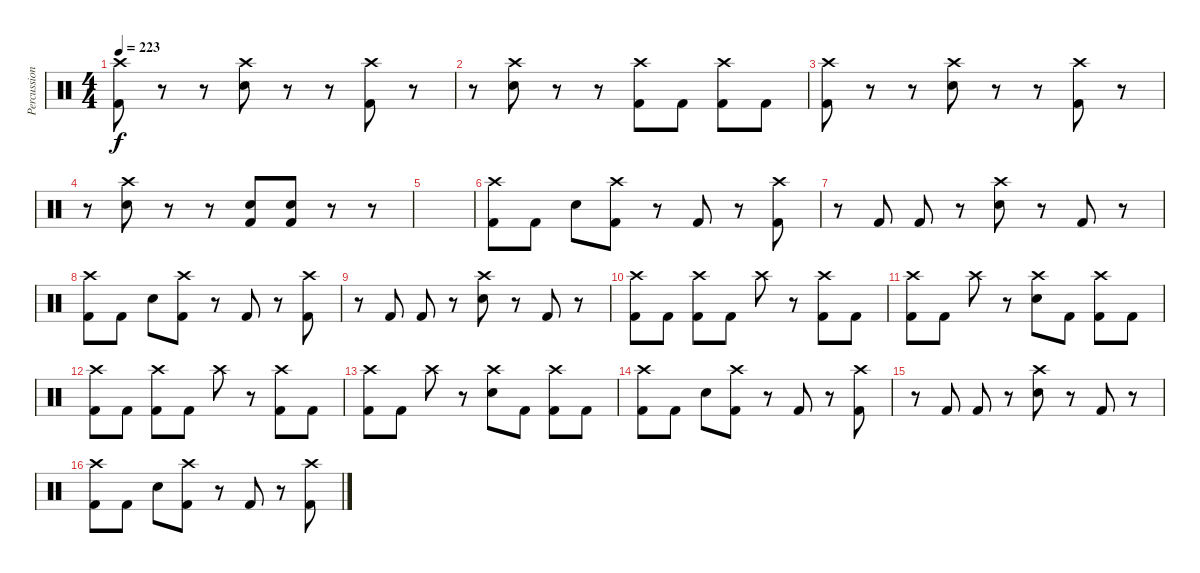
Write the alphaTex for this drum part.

\track ("Percussion" "Percussion") {instrument percussion}
\staff {score}
\articulation defaults
\ts (4 4)
\tempo 223
\clef neutral
\ks c
("Crash high (hit)" "Kick (hit) 2").8{dy f} r.8 r.8 ("Crash high (hit)" "Electric Snare (hit)").8 r.8 r.8 ("Crash high (hit)" "Kick (hit) 2").8 r.8 |
r.8 ("Crash high (hit)" "Electric Snare (hit)").8 r.8 r.8 ("Crash high (hit)" "Kick (hit) 2").8 "Kick (hit) 2".8 ("Crash high (hit)" "Kick (hit) 2").8 "Kick (hit) 2".8 |
("Crash high (hit)" "Kick (hit) 2").8 r.8 r.8 ("Crash high (hit)" "Electric Snare (hit)").8 r.8 r.8 ("Crash high (hit)" "Kick (hit) 2").8 r.8 |
r.8 ("Crash high (hit)" "Electric Snare (hit)").8 r.8 r.8 ("Electric Snare (hit)" "Kick (hit) 2").8 ("Electric Snare (hit)" "Kick (hit) 2").8 r.8 r.8 |
|
("Crash high (hit)" "Kick (hit) 2").8 "Kick (hit) 2".8 "Electric Snare (hit)".8 ("Crash high (hit)" "Kick (hit) 2").8 r.8 "Kick (hit) 2".8 r.8 ("Crash high (hit)" "Kick (hit) 2").8 |
r.8 "Kick (hit) 2".8 "Kick (hit) 2".8 r.8 ("Crash high (hit)" "Electric Snare (hit)").8 r.8 "Kick (hit) 2".8 r.8 |
("Crash high (hit)" "Kick (hit) 2").8 "Kick (hit) 2".8 "Electric Snare (hit)".8 ("Crash high (hit)" "Kick (hit) 2").8 r.8 "Kick (hit) 2".8 r.8 ("Crash high (hit)" "Kick (hit) 2").8 |
r.8 "Kick (hit) 2".8 "Kick (hit) 2".8 r.8 ("Crash high (hit)" "Electric Snare (hit)").8 r.8 "Kick (hit) 2".8 r.8 |
("Crash high (hit)" "Kick (hit) 2").8 "Kick (hit) 2".8 ("Crash high (hit)" "Kick (hit) 2").8 "Kick (hit) 2".8 "Crash high (hit)".8 r.8 ("Crash high (hit)" "Kick (hit) 2").8 "Kick (hit) 2".8 |
("Crash high (hit)" "Kick (hit) 2").8 "Kick (hit) 2".8 "Crash high (hit)".8 r.8 ("Crash high (hit)" "Electric Snare (hit)").8 "Kick (hit) 2".8 ("Crash high (hit)" "Kick (hit) 2").8 "Kick (hit) 2".8 |
("Crash high (hit)" "Kick (hit) 2").8 "Kick (hit) 2".8 ("Crash high (hit)" "Kick (hit) 2").8 "Kick (hit) 2".8 "Crash high (hit)".8 r.8 ("Crash high (hit)" "Kick (hit) 2").8 "Kick (hit) 2".8 |
("Crash high (hit)" "Kick (hit) 2").8 "Kick (hit) 2".8 "Crash high (hit)".8 r.8 ("Crash high (hit)" "Electric Snare (hit)").8 "Kick (hit) 2".8 ("Crash high (hit)" "Kick (hit) 2").8 "Kick (hit) 2".8 |
("Crash high (hit)" "Kick (hit) 2").8 "Kick (hit) 2".8 "Electric Snare (hit)".8 ("Crash high (hit)" "Kick (hit) 2").8 r.8 "Kick (hit) 2".8 r.8 ("Crash high (hit)" "Kick (hit) 2").8 |
r.8 "Kick (hit) 2".8 "Kick (hit) 2".8 r.8 ("Crash high (hit)" "Electric Snare (hit)").8 r.8 "Kick (hit) 2".8 r.8 |
("Crash high (hit)" "Kick (hit) 2").8 "Kick (hit) 2".8 "Electric Snare (hit)".8 ("Crash high (hit)" "Kick (hit) 2").8 r.8 "Kick (hit) 2".8 r.8 ("Crash high (hit)" "Kick (hit) 2").8
